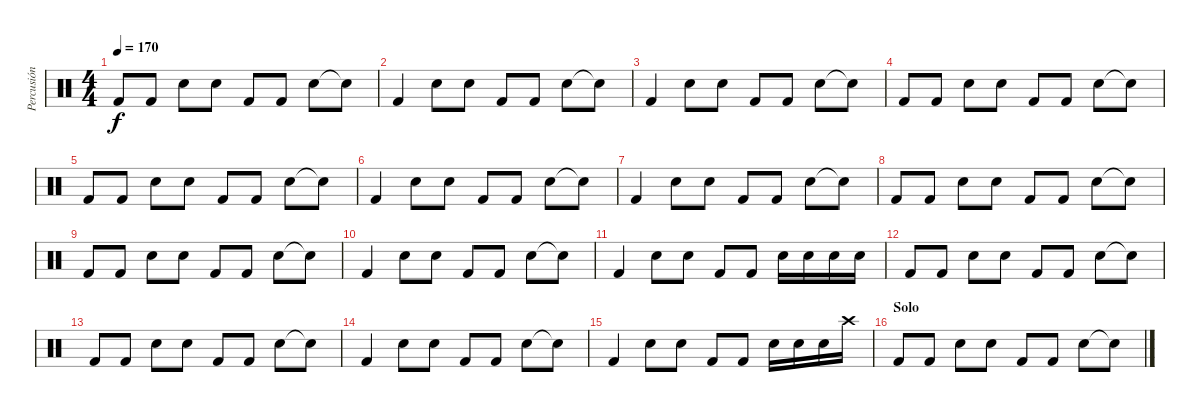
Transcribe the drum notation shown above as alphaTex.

\track ("Percusión" "Percusión") {instrument percussion}
\staff {score}
\articulation defaults
\ts (4 4)
\tempo 170
\clef neutral
\ks c "Kick (hit) 2".8{dy f} "Kick (hit) 2".8 "Electric Snare (hit)".8 "Electric Snare (hit)".8 "Kick (hit) 2".8 "Kick (hit) 2".8 "Electric Snare (hit)".8 "Snare (hit)"{t}.8
|
"Kick (hit) 2".4 "Electric Snare (hit)".8 "Electric Snare (hit)".8 "Kick (hit) 2".8 "Kick (hit) 2".8 "Electric Snare (hit)".8 "Electric Snare (hit)"{t}.8 |
"Kick (hit) 2".4 "Electric Snare (hit)".8 "Electric Snare (hit)".8 "Kick (hit) 2".8 "Kick (hit) 2".8 "Electric Snare (hit)".8 "Electric Snare (hit)"{t}.8 |
"Kick (hit) 2".8 "Kick (hit) 2".8 "Electric Snare (hit)".8 "Electric Snare (hit)".8 "Kick (hit) 2".8 "Kick (hit) 2".8 "Electric Snare (hit)".8 "Snare (hit)"{t}.8 |
"Kick (hit) 2".8 "Kick (hit) 2".8 "Electric Snare (hit)".8 "Electric Snare (hit)".8 "Kick (hit) 2".8 "Kick (hit) 2".8 "Electric Snare (hit)".8 "Snare (hit)"{t}.8 |
"Kick (hit) 2".4 "Electric Snare (hit)".8 "Electric Snare (hit)".8 "Kick (hit) 2".8 "Kick (hit) 2".8 "Electric Snare (hit)".8 "Electric Snare (hit)"{t}.8 |
"Kick (hit) 2".4 "Electric Snare (hit)".8 "Electric Snare (hit)".8 "Kick (hit) 2".8 "Kick (hit) 2".8 "Electric Snare (hit)".8 "Electric Snare (hit)"{t}.8 |
"Kick (hit) 2".8 "Kick (hit) 2".8 "Electric Snare (hit)".8 "Electric Snare (hit)".8 "Kick (hit) 2".8 "Kick (hit) 2".8 "Electric Snare (hit)".8 "Snare (hit)"{t}.8 |
"Kick (hit) 2".8 "Kick (hit) 2".8 "Electric Snare (hit)".8 "Electric Snare (hit)".8 "Kick (hit) 2".8 "Kick (hit) 2".8 "Electric Snare (hit)".8 "Snare (hit)"{t}.8 |
"Kick (hit) 2".4 "Electric Snare (hit)".8 "Electric Snare (hit)".8 "Kick (hit) 2".8 "Kick (hit) 2".8 "Electric Snare (hit)".8 "Electric Snare (hit)"{t}.8 |
"Kick (hit) 2".4 "Electric Snare (hit)".8 "Electric Snare (hit)".8 "Kick (hit) 2".8 "Kick (hit) 2".8 "Electric Snare (hit)".16 "Electric Snare (hit)".16 "Electric Snare (hit)".16 "Electric Snare (hit)".16 |
"Kick (hit) 2".8 "Kick (hit) 2".8 "Electric Snare (hit)".8 "Electric Snare (hit)".8 "Kick (hit) 2".8 "Kick (hit) 2".8 "Electric Snare (hit)".8 "Snare (hit)"{t}.8 |
"Kick (hit) 2".8 "Kick (hit) 2".8 "Electric Snare (hit)".8 "Electric Snare (hit)".8 "Kick (hit) 2".8 "Kick (hit) 2".8 "Electric Snare (hit)".8 "Snare (hit)"{t}.8 |
"Kick (hit) 2".4 "Electric Snare (hit)".8 "Electric Snare (hit)".8 "Kick (hit) 2".8 "Kick (hit) 2".8 "Electric Snare (hit)".8 "Electric Snare (hit)"{t}.8 |
"Kick (hit) 2".4 "Electric Snare (hit)".8 "Electric Snare (hit)".8 "Kick (hit) 2".8 "Kick (hit) 2".8 "Electric Snare (hit)".16 "Electric Snare (hit)".16 "Electric Snare (hit)".16 "Crash high (hit)".16 |
\section ("" "Solo")
"Kick (hit) 2".8 "Kick (hit) 2".8 "Electric Snare (hit)".8 "Electric Snare (hit)".8 "Kick (hit) 2".8 "Kick (hit) 2".8 "Electric Snare (hit)".8 "Snare (hit)"{t}.8
